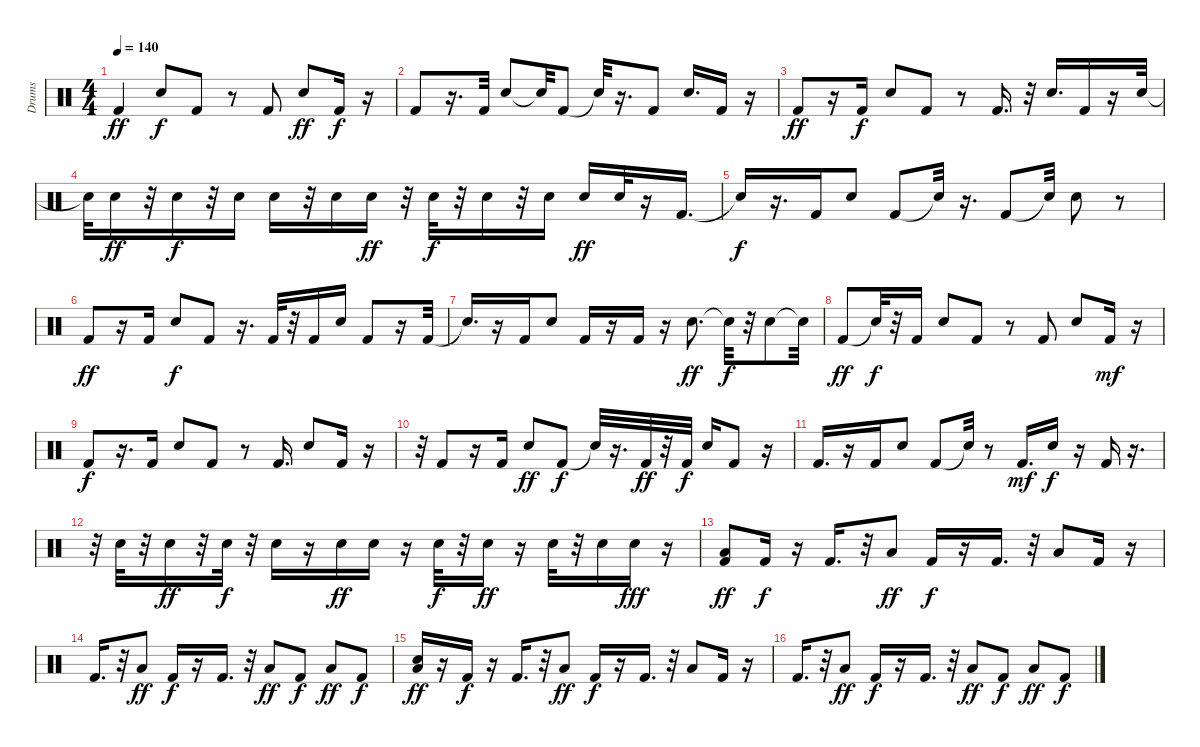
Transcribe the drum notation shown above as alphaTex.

\track ("Drums" "Drums") {instrument percussion}
\staff {score}
\articulation defaults
\ts (4 4)
\tempo 140
\clef neutral
\ks c "Kick (hit) 2".4{dy ff} "Snare (hit) 2".8{dy f} "Kick (hit) 2".8
r.8 "Kick (hit) 2".8 "Snare (hit) 2".8{dy ff} "Kick (hit) 2".16{dy f} r.16 |
"Kick (hit) 2".8 r.16{d} "Kick (hit) 2".32 "Snare (hit) 2".8 "Snare (hit)"{t}.32 "Kick (hit) 2".8 "Snare (hit)"{t}.32 r.16{d} "Kick (hit) 2".8 "Snare (hit) 2".16{d} "Kick (hit) 2".16 r.16 |
"Kick (hit) 2".8{dy ff} r.16 "Kick (hit) 2".16{dy f} "Snare (hit) 2".8 "Kick (hit) 2".8 r.8 "Kick (hit) 2".16{d} r.32 "Snare (hit) 2".16{d} "Kick (hit) 2".16 r.16 "Snare (hit) 2".32 |
"Snare (hit)"{t}.32 "Snare (hit) 2".16{dy ff} r.32 "Snare (hit) 2".16{dy f} r.32 "Snare (hit) 2".16 "Snare (hit) 2".16 r.32 "Snare (hit) 2".16 "Snare (hit) 2".16{dy ff} r.32 "Snare (hit) 2".32{dy f} r.32 "Snare (hit) 2".16 r.32 "Snare (hit) 2".16 "Snare (hit) 2".16{dy ff} "Snare (hit) 2".32 r.16 "Kick (hit) 2".16{d} |
"Snare (hit)"{t}.16{dy f} r.16{d} "Kick (hit) 2".16 "Snare (hit) 2".8 "Kick (hit) 2".8 "Snare (hit)"{t}.32 r.16{d} "Kick (hit) 2".8 "Snare (hit)"{t}.32 "Snare (hit) 2".8 r.8 |
"Kick (hit) 2".8{dy ff} r.16 "Kick (hit) 2".16 "Snare (hit) 2".8{dy f} "Kick (hit) 2".8 r.16{d} "Kick (hit) 2".32 r.32 "Kick (hit) 2".16 "Snare (hit) 2".16 "Kick (hit) 2".8 r.16 "Kick (hit) 2".32 |
"Snare (hit)"{t}.16{d} r.16 "Kick (hit) 2".16 "Snare (hit) 2".8 "Kick (hit) 2".16 r.16 "Kick (hit) 2".16 r.16 "Snare (hit) 2".8{d dy ff} "Snare (hit)"{t}.32{dy f} r.32 "Snare (hit) 2".8 "Snare (hit)"{t}.32 |
"Kick (hit) 2".8{dy ff} "Snare (hit)"{t}.32{dy f} r.32 "Kick (hit) 2".16 "Snare (hit) 2".8 "Kick (hit) 2".8 r.8 "Kick (hit) 2".8 "Snare (hit) 2".8 "Kick (hit) 2".16{dy mf} r.16 |
"Kick (hit) 2".8{dy f} r.16{d} "Kick (hit) 2".16 "Snare (hit) 2".8 "Kick (hit) 2".8 r.8 "Kick (hit) 2".16{d} "Snare (hit) 2".8 "Kick (hit) 2".16 r.16 |
r.32 "Kick (hit) 2".8 r.16 "Kick (hit) 2".16 "Snare (hit) 2".8{dy ff} "Kick (hit) 2".8{dy f} "Snare (hit)"{t}.32 r.16{d} "Kick (hit) 2".32{dy ff} r.32 "Kick (hit) 2".32{dy f} "Snare (hit) 2".16 "Kick (hit) 2".8 r.16 |
"Kick (hit) 2".16{d} r.16 "Kick (hit) 2".16 "Snare (hit) 2".8 "Kick (hit) 2".8 "Snare (hit)"{t}.32 r.8 "Kick (hit) 2".16{d dy mf} "Snare (hit) 2".16{dy f} r.16 "Kick (hit) 2".16 r.16{d} |
r.32 "Electric Snare (hit)".32 r.32 "Snare (hit) 2".16{dy ff} r.32 "Electric Snare (hit)".32{dy f} r.32 "Snare (hit) 2".16 r.16 "Electric Snare (hit)".16{dy ff} "Snare (hit) 2".16 r.16 "Electric Snare (hit)".32{dy f} r.32 "Snare (hit) 2".16{dy ff} r.16 "Electric Snare (hit)".32 r.32 "Snare (hit) 2".16 "Electric Snare (hit)".16{dy fff} r.16 |
("Kick (hit) 2" "Low Floor Tom (hit)").8{dy ff} "Kick (hit) 2".16{dy f} r.16 "Kick (hit) 2".16{d} r.32 "Low Floor Tom (hit)".8{dy ff} "Kick (hit) 2".16{dy f} r.16 "Kick (hit) 2".16{d} r.32 "Low Floor Tom (hit)".8 "Kick (hit) 2".16 r.16 |
"Kick (hit) 2".16{d} r.32 "Low Floor Tom (hit)".8{dy ff} "Kick (hit) 2".16{dy f} r.16 "Kick (hit) 2".16{d} r.32 "Low Floor Tom (hit)".8{dy ff} "Kick (hit) 2".8{dy f} "Low Floor Tom (hit)".8{dy ff} "Kick (hit) 2".8{dy f} |
("Low Floor Tom (hit)" "Electric Snare (hit)").16{dy ff} r.16 "Kick (hit) 2".16{dy f} r.16 "Kick (hit) 2".16{d} r.32 "Low Floor Tom (hit)".8{dy ff} "Kick (hit) 2".16{dy f} r.16 "Kick (hit) 2".16{d} r.32 "Low Floor Tom (hit)".8 "Kick (hit) 2".16 r.16 |
"Kick (hit) 2".16{d} r.32 "Low Floor Tom (hit)".8{dy ff} "Kick (hit) 2".16{dy f} r.16 "Kick (hit) 2".16{d} r.32 "Low Floor Tom (hit)".8{dy ff} "Kick (hit) 2".8{dy f} "Low Floor Tom (hit)".8{dy ff} "Kick (hit) 2".8{dy f}
